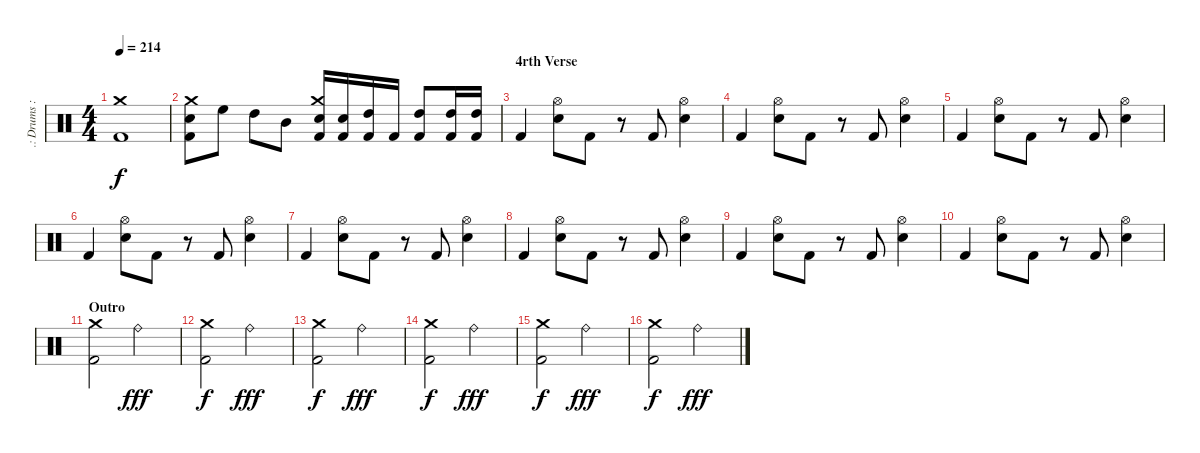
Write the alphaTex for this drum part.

\track (".: Drums :." ".: Drums :") {instrument percussion}
\staff {score}
\articulation defaults
\ts (4 4)
\tempo 214
\clef neutral
\ks c
("Kick (hit) 2" "Crash medium (hit)").1{dy f} |
("Kick (hit) 2" "Crash medium (hit)" "Snare (hit) 2").8 "High Floor Tom (hit)".8 "High Tom (hit)".8 "Mid Tom (hit)".8 ("Kick (hit) 2" "Crash medium (hit)" "Snare (hit) 2").16 ("Kick (hit) 2" "Snare (hit) 2").16 ("Kick (hit) 2" "High Tom (hit)").16 "Kick (hit) 2".16 ("Kick (hit) 2" "High Tom (hit)").8 ("Kick (hit) 2" "High Tom (hit)").16 ("Kick (hit) 2" "High Tom (hit)").16 |
\section ("" "4rth Verse")
"Kick (hit) 2".4 ("Snare (hit) 2" "Hi-Hat (open)").8 "Kick (hit) 2".8 r.8 "Kick (hit) 2".8 ("Snare (hit) 2" "Hi-Hat (open)").4 |
"Kick (hit) 2".4 ("Snare (hit) 2" "Hi-Hat (open)").8 "Kick (hit) 2".8 r.8 "Kick (hit) 2".8 ("Snare (hit) 2" "Hi-Hat (open)").4 |
"Kick (hit) 2".4 ("Snare (hit) 2" "Hi-Hat (open)").8 "Kick (hit) 2".8 r.8 "Kick (hit) 2".8 ("Snare (hit) 2" "Hi-Hat (open)").4 |
"Kick (hit) 2".4 ("Snare (hit) 2" "Hi-Hat (open)").8 "Kick (hit) 2".8 r.8 "Kick (hit) 2".8 ("Snare (hit) 2" "Hi-Hat (open)").4 |
"Kick (hit) 2".4 ("Snare (hit) 2" "Hi-Hat (open)").8 "Kick (hit) 2".8 r.8 "Kick (hit) 2".8 ("Snare (hit) 2" "Hi-Hat (open)").4 |
"Kick (hit) 2".4 ("Snare (hit) 2" "Hi-Hat (open)").8 "Kick (hit) 2".8 r.8 "Kick (hit) 2".8 ("Snare (hit) 2" "Hi-Hat (open)").4 |
"Kick (hit) 2".4 ("Snare (hit) 2" "Hi-Hat (open)").8 "Kick (hit) 2".8 r.8 "Kick (hit) 2".8 ("Snare (hit) 2" "Hi-Hat (open)").4 |
"Kick (hit) 2".4 ("Snare (hit) 2" "Hi-Hat (open)").8 "Kick (hit) 2".8 r.8 "Kick (hit) 2".8 ("Snare (hit) 2" "Hi-Hat (open)").4 |
\section ("" "Outro")
("Kick (hit) 2" "Crash medium (hit)").2 "Ride (bell)".2{dy fff} |
("Kick (hit) 2" "Crash medium (hit)").2{dy f} "Ride (bell)".2{dy fff} |
("Kick (hit) 2" "Crash medium (hit)").2{dy f} "Ride (bell)".2{dy fff} |
("Kick (hit) 2" "Crash medium (hit)").2{dy f} "Ride (bell)".2{dy fff} |
("Kick (hit) 2" "Crash medium (hit)").2{dy f} "Ride (bell)".2{dy fff} |
("Kick (hit) 2" "Crash medium (hit)").2{dy f} "Ride (bell)".2{dy fff}
